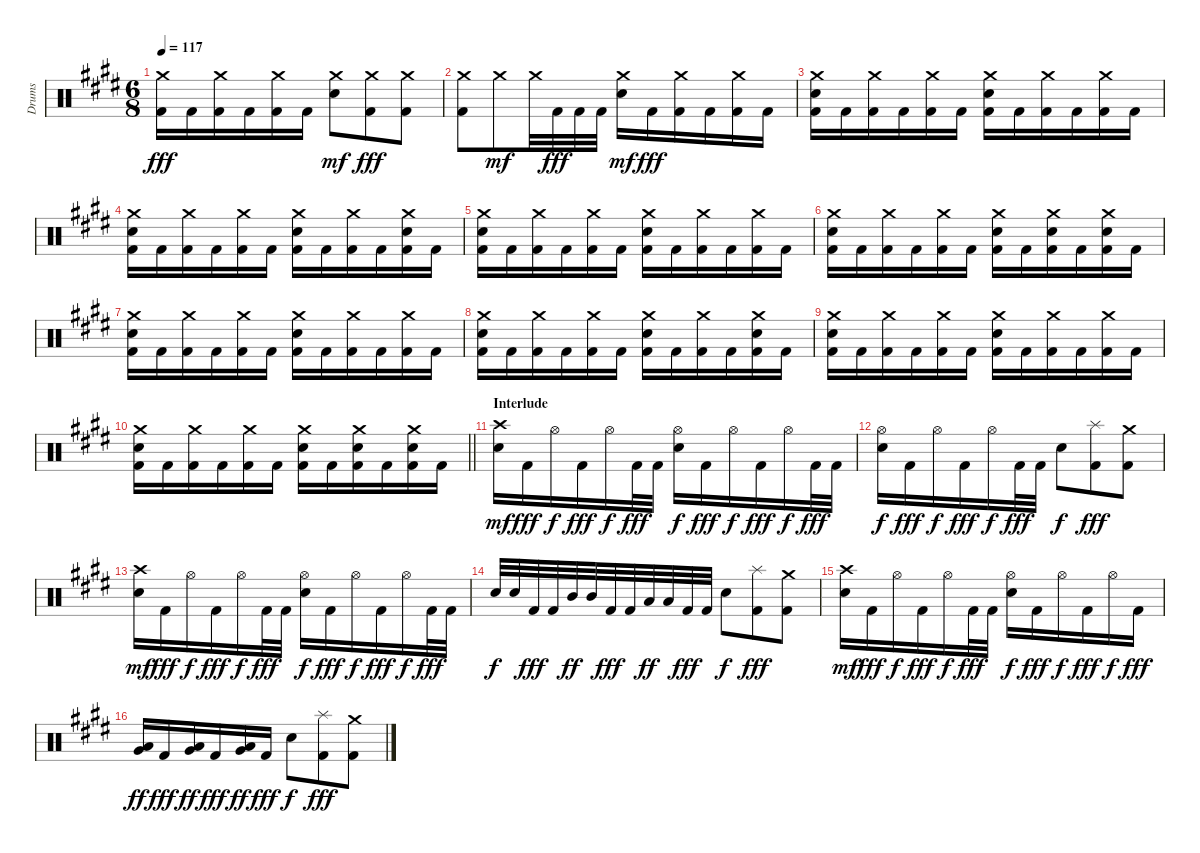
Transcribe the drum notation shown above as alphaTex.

\track ("Drums" "Drums") {instrument percussion}
\staff {score}
\articulation defaults
\ts (6 8)
\tempo 117
\clef neutral
\ks c#minor
("Crash medium (hit)" "Kick (hit) 2").16{dy fff} "Kick (hit) 2".16 ("Crash medium (hit)" "Kick (hit) 2").16 "Kick (hit) 2".16 ("Crash medium (hit)" "Kick (hit) 2").16 "Kick (hit) 2".16 ("Crash medium (hit)" "Electric Snare (hit)").8{dy mf} ("Crash medium (hit)" "Kick (hit) 2").8{dy fff} ("Crash medium (hit)" "Kick (hit) 2").8 |
("Crash medium (hit)" "Kick (hit) 2").8 "Crash medium (hit)".8{dy mf} "Crash medium (hit)".32 "Kick (hit) 2".32{dy fff} "Kick (hit) 2".32 "Kick (hit) 2".32 ("Crash medium (hit)" "Electric Snare (hit)").16{dy mf} "Kick (hit) 2".16{dy fff} ("Crash medium (hit)" "Kick (hit) 2").16 "Kick (hit) 2".16 ("Crash medium (hit)" "Kick (hit) 2").16 "Kick (hit) 2".16 |
("Crash medium (hit)" "Electric Snare (hit)" "Kick (hit) 2").16 "Kick (hit) 2".16 ("Crash medium (hit)" "Kick (hit) 2").16 "Kick (hit) 2".16 ("Crash medium (hit)" "Kick (hit) 2").16 "Kick (hit) 2".16 ("Crash medium (hit)" "Electric Snare (hit)" "Kick (hit) 2").16 "Kick (hit) 2".16 ("Crash medium (hit)" "Kick (hit) 2").16 "Kick (hit) 2".16 ("Crash medium (hit)" "Kick (hit) 2").16 "Kick (hit) 2".16 |
("Crash medium (hit)" "Electric Snare (hit)" "Kick (hit) 2").16 "Kick (hit) 2".16 ("Crash medium (hit)" "Kick (hit) 2").16 "Kick (hit) 2".16 ("Crash medium (hit)" "Kick (hit) 2").16 "Kick (hit) 2".16 ("Crash medium (hit)" "Electric Snare (hit)" "Kick (hit) 2").16 "Kick (hit) 2".16 ("Crash medium (hit)" "Kick (hit) 2").16 "Kick (hit) 2".16 ("Crash medium (hit)" "Electric Snare (hit)" "Kick (hit) 2").16 "Kick (hit) 2".16 |
("Crash medium (hit)" "Electric Snare (hit)" "Kick (hit) 2").16 "Kick (hit) 2".16 ("Crash medium (hit)" "Kick (hit) 2").16 "Kick (hit) 2".16 ("Crash medium (hit)" "Kick (hit) 2").16 "Kick (hit) 2".16 ("Crash medium (hit)" "Electric Snare (hit)" "Kick (hit) 2").16 "Kick (hit) 2".16 ("Crash medium (hit)" "Kick (hit) 2").16 "Kick (hit) 2".16 ("Crash medium (hit)" "Kick (hit) 2").16 "Kick (hit) 2".16 |
("Crash medium (hit)" "Electric Snare (hit)" "Kick (hit) 2").16 "Kick (hit) 2".16 ("Crash medium (hit)" "Kick (hit) 2").16 "Kick (hit) 2".16 ("Crash medium (hit)" "Kick (hit) 2").16 "Kick (hit) 2".16 ("Crash medium (hit)" "Electric Snare (hit)" "Kick (hit) 2").16 "Kick (hit) 2".16 ("Crash medium (hit)" "Electric Snare (hit)" "Kick (hit) 2").16 "Kick (hit) 2".16 ("Crash medium (hit)" "Electric Snare (hit)" "Kick (hit) 2").16 "Kick (hit) 2".16 |
("Crash medium (hit)" "Electric Snare (hit)" "Kick (hit) 2").16 "Kick (hit) 2".16 ("Crash medium (hit)" "Kick (hit) 2").16 "Kick (hit) 2".16 ("Crash medium (hit)" "Kick (hit) 2").16 "Kick (hit) 2".16 ("Crash medium (hit)" "Electric Snare (hit)" "Kick (hit) 2").16 "Kick (hit) 2".16 ("Crash medium (hit)" "Kick (hit) 2").16 "Kick (hit) 2".16 ("Crash medium (hit)" "Kick (hit) 2").16 "Kick (hit) 2".16 |
("Crash medium (hit)" "Electric Snare (hit)" "Kick (hit) 2").16 "Kick (hit) 2".16 ("Crash medium (hit)" "Kick (hit) 2").16 "Kick (hit) 2".16 ("Crash medium (hit)" "Kick (hit) 2").16 "Kick (hit) 2".16 ("Crash medium (hit)" "Electric Snare (hit)" "Kick (hit) 2").16 "Kick (hit) 2".16 ("Crash medium (hit)" "Kick (hit) 2").16 "Kick (hit) 2".16 ("Crash medium (hit)" "Electric Snare (hit)" "Kick (hit) 2").16 "Kick (hit) 2".16 |
("Crash medium (hit)" "Electric Snare (hit)" "Kick (hit) 2").16 "Kick (hit) 2".16 ("Crash medium (hit)" "Kick (hit) 2").16 "Kick (hit) 2".16 ("Crash medium (hit)" "Kick (hit) 2").16 "Kick (hit) 2".16 ("Crash medium (hit)" "Electric Snare (hit)" "Kick (hit) 2").16 "Kick (hit) 2".16 ("Crash medium (hit)" "Kick (hit) 2").16 "Kick (hit) 2".16 ("Crash medium (hit)" "Kick (hit) 2").16 "Kick (hit) 2".16 |
\barLineRight lightlight
("Crash medium (hit)" "Electric Snare (hit)" "Kick (hit) 2").16 "Kick (hit) 2".16 ("Crash medium (hit)" "Kick (hit) 2").16 "Kick (hit) 2".16 ("Crash medium (hit)" "Kick (hit) 2").16 "Kick (hit) 2".16 ("Crash medium (hit)" "Electric Snare (hit)" "Kick (hit) 2").16 "Kick (hit) 2".16 ("Crash medium (hit)" "Electric Snare (hit)" "Kick (hit) 2").16 "Kick (hit) 2".16 ("Crash medium (hit)" "Electric Snare (hit)" "Kick (hit) 2").16 "Kick (hit) 2".16 |
\section ("" "Interlude")
("Crash high (hit)" "Electric Snare (hit)").16{dy mf} "Kick (hit) 2".16{dy fff} "Hi-Hat (open)".16{dy f} "Kick (hit) 2".16{dy fff} "Hi-Hat (open)".16{dy f} "Kick (hit) 2".32{dy fff} "Kick (hit) 2".32 ("Hi-Hat (open)" "Electric Snare (hit)").16{dy f} "Kick (hit) 2".16{dy fff} "Hi-Hat (open)".16{dy f} "Kick (hit) 2".16{dy fff} "Hi-Hat (open)".16{dy f} "Kick (hit) 2".32{dy fff} "Kick (hit) 2".32 |
("Hi-Hat (open)" "Electric Snare (hit)").16{dy f} "Kick (hit) 2".16{dy fff} "Hi-Hat (open)".16{dy f} "Kick (hit) 2".16{dy fff} "Hi-Hat (open)".16{dy f} "Kick (hit) 2".32{dy fff} "Kick (hit) 2".32 "Electric Snare (hit)".8{dy f} ("Splash (hit)" "Kick (hit) 2").8{dy fff} ("Crash medium (hit)" "Kick (hit) 2").8 |
("Crash high (hit)" "Electric Snare (hit)").16{dy mf} "Kick (hit) 2".16{dy fff} "Hi-Hat (open)".16{dy f} "Kick (hit) 2".16{dy fff} "Hi-Hat (open)".16{dy f} "Kick (hit) 2".32{dy fff} "Kick (hit) 2".32 ("Hi-Hat (open)" "Electric Snare (hit)").16{dy f} "Kick (hit) 2".16{dy fff} "Hi-Hat (open)".16{dy f} "Kick (hit) 2".16{dy fff} "Hi-Hat (open)".16{dy f} "Kick (hit) 2".32{dy fff} "Kick (hit) 2".32 |
"Electric Snare (hit)".32{dy f} "Electric Snare (hit)".32 "Kick (hit) 2".32{dy fff} "Kick (hit) 2".32 "Mid Tom (hit)".32{dy ff} "Mid Tom (hit)".32 "Kick (hit) 2".32{dy fff} "Kick (hit) 2".32 "Low Tom (hit)".32{dy ff} "Low Tom (hit)".32 "Kick (hit) 2".32{dy fff} "Kick (hit) 2".32 "Electric Snare (hit)".8{dy f} ("Splash (hit)" "Kick (hit) 2").8{dy fff} ("Crash medium (hit)" "Kick (hit) 2").8 |
("Crash high (hit)" "Electric Snare (hit)").16{dy mf} "Kick (hit) 2".16{dy fff} "Hi-Hat (open)".16{dy f} "Kick (hit) 2".16{dy fff} "Hi-Hat (open)".16{dy f} "Kick (hit) 2".32{dy fff} "Kick (hit) 2".32 ("Hi-Hat (open)" "Electric Snare (hit)").16{dy f} "Kick (hit) 2".16{dy fff} "Hi-Hat (open)".16{dy f} "Kick (hit) 2".16{dy fff} "Hi-Hat (open)".16{dy f} "Kick (hit) 2".16{dy fff} |
("Very Low Tom (hit)" "Low Floor Tom (hit)").16{dy ff} "Kick (hit) 2".16{dy fff} ("Very Low Tom (hit)" "Low Floor Tom (hit)").16{dy ff} "Kick (hit) 2".16{dy fff} ("Very Low Tom (hit)" "Low Floor Tom (hit)").16{dy ff} "Kick (hit) 2".16{dy fff} "Electric Snare (hit)".8{dy f} ("Splash (hit)" "Kick (hit) 2").8{dy fff} ("Crash medium (hit)" "Kick (hit) 2").8
